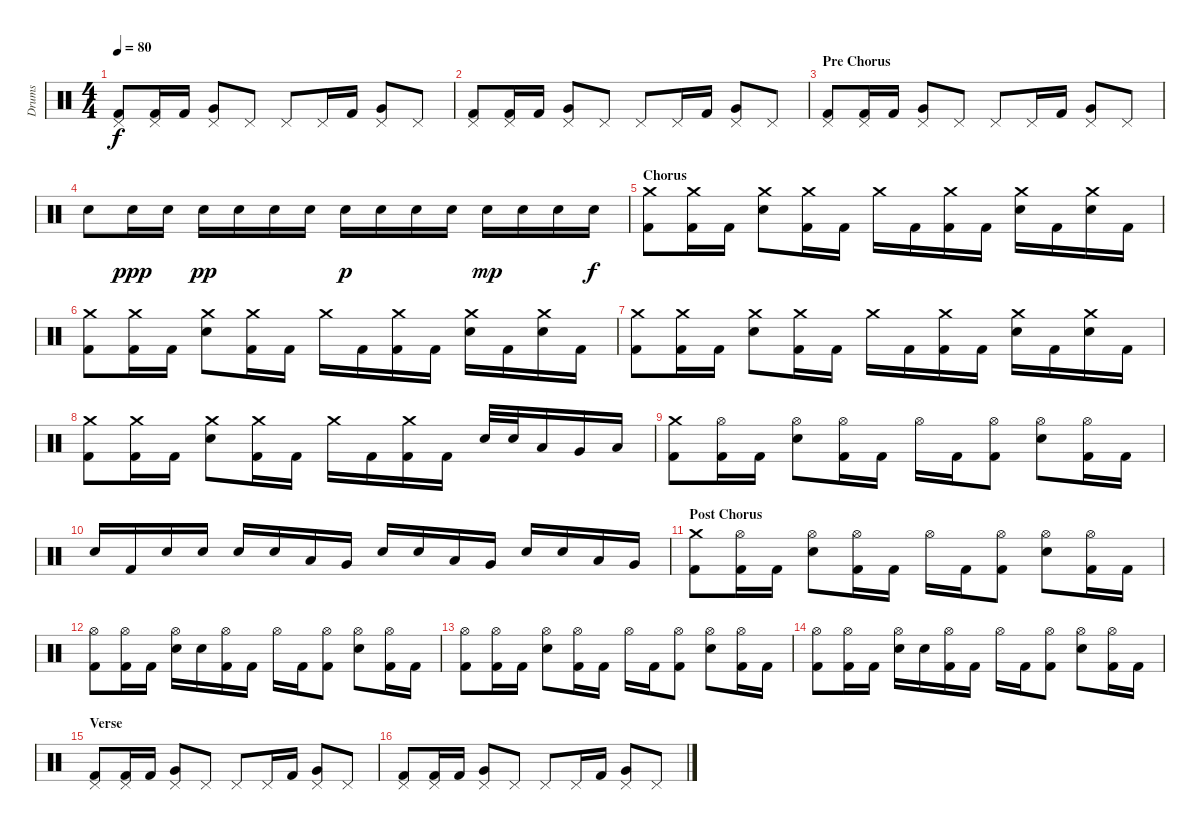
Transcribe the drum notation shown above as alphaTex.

\track ("Drums" "Drums") {instrument percussion}
\staff {score}
\articulation defaults
\ts (4 4)
\tempo 80
\clef neutral
\ks c
("Pedal Hi-Hat (hit)" "Kick (hit) 2").8{dy f} ("Pedal Hi-Hat (hit)" "Kick (hit) 2").16 "Kick (hit) 2".16 ("Pedal Hi-Hat (hit)" "Very Low Tom (hit)").8 "Pedal Hi-Hat (hit)".8 "Pedal Hi-Hat (hit)".8 "Pedal Hi-Hat (hit)".16 "Kick (hit) 2".16 ("Pedal Hi-Hat (hit)" "Very Low Tom (hit)").8 "Pedal Hi-Hat (hit)".8 |
("Pedal Hi-Hat (hit)" "Kick (hit) 2").8 ("Pedal Hi-Hat (hit)" "Kick (hit) 2").16 "Kick (hit) 2".16 ("Pedal Hi-Hat (hit)" "Very Low Tom (hit)").8 "Pedal Hi-Hat (hit)".8 "Pedal Hi-Hat (hit)".8 "Pedal Hi-Hat (hit)".16 "Kick (hit) 2".16 ("Pedal Hi-Hat (hit)" "Very Low Tom (hit)").8 "Pedal Hi-Hat (hit)".8 |
\section ("" "Pre Chorus")
("Pedal Hi-Hat (hit)" "Kick (hit) 2").8 ("Pedal Hi-Hat (hit)" "Kick (hit) 2").16 "Kick (hit) 2".16 ("Pedal Hi-Hat (hit)" "Very Low Tom (hit)").8 "Pedal Hi-Hat (hit)".8 "Pedal Hi-Hat (hit)".8 "Pedal Hi-Hat (hit)".16 "Kick (hit) 2".16 ("Pedal Hi-Hat (hit)" "Very Low Tom (hit)").8 "Pedal Hi-Hat (hit)".8 |
"Electric Snare (hit)".8 "Electric Snare (hit)".16{dy ppp} "Electric Snare (hit)".16 "Electric Snare (hit)".16{dy pp} "Electric Snare (hit)".16 "Electric Snare (hit)".16 "Electric Snare (hit)".16 "Electric Snare (hit)".16{dy p} "Electric Snare (hit)".16 "Electric Snare (hit)".16 "Electric Snare (hit)".16 "Electric Snare (hit)".16{dy mp} "Electric Snare (hit)".16 "Electric Snare (hit)".16 "Electric Snare (hit)".16{dy f} |
\section ("" "Chorus")
("Crash medium (hit)" "Kick (hit) 2").8 ("Crash medium (hit)" "Kick (hit) 2").16 "Kick (hit) 2".16 ("Crash medium (hit)" "Electric Snare (hit)").8 ("Crash medium (hit)" "Kick (hit) 2").16 "Kick (hit) 2".16 "Crash medium (hit)".16 "Kick (hit) 2".16 ("Crash medium (hit)" "Kick (hit) 2").16 "Kick (hit) 2".16 ("Crash medium (hit)" "Electric Snare (hit)").16 "Kick (hit) 2".16 ("Crash medium (hit)" "Electric Snare (hit)").16 "Kick (hit) 2".16 |
("Crash medium (hit)" "Kick (hit) 2").8 ("Crash medium (hit)" "Kick (hit) 2").16 "Kick (hit) 2".16 ("Crash medium (hit)" "Electric Snare (hit)").8 ("Crash medium (hit)" "Kick (hit) 2").16 "Kick (hit) 2".16 "Crash medium (hit)".16 "Kick (hit) 2".16 ("Crash medium (hit)" "Kick (hit) 2").16 "Kick (hit) 2".16 ("Crash medium (hit)" "Electric Snare (hit)").16 "Kick (hit) 2".16 ("Crash medium (hit)" "Electric Snare (hit)").16 "Kick (hit) 2".16 |
("Crash medium (hit)" "Kick (hit) 2").8 ("Crash medium (hit)" "Kick (hit) 2").16 "Kick (hit) 2".16 ("Crash medium (hit)" "Electric Snare (hit)").8 ("Crash medium (hit)" "Kick (hit) 2").16 "Kick (hit) 2".16 "Crash medium (hit)".16 "Kick (hit) 2".16 ("Crash medium (hit)" "Kick (hit) 2").16 "Kick (hit) 2".16 ("Crash medium (hit)" "Electric Snare (hit)").16 "Kick (hit) 2".16 ("Crash medium (hit)" "Electric Snare (hit)").16 "Kick (hit) 2".16 |
("Crash medium (hit)" "Kick (hit) 2").8 ("Crash medium (hit)" "Kick (hit) 2").16 "Kick (hit) 2".16 ("Crash medium (hit)" "Electric Snare (hit)").8 ("Crash medium (hit)" "Kick (hit) 2").16 "Kick (hit) 2".16 "Crash medium (hit)".16 "Kick (hit) 2".16 ("Crash medium (hit)" "Kick (hit) 2").16 "Kick (hit) 2".16 "Electric Snare (hit)".32 "Electric Snare (hit)".32 "Low Tom (hit)".16 "Very Low Tom (hit)".16 "Low Floor Tom (hit)".16 |
("Crash medium (hit)" "Kick (hit) 2").8 ("Hi-Hat (open)" "Kick (hit) 2").16 "Kick (hit) 2".16 ("Hi-Hat (open)" "Electric Snare (hit)").8 ("Hi-Hat (open)" "Kick (hit) 2").16 "Kick (hit) 2".16 "Hi-Hat (open)".16 "Kick (hit) 2".16 ("Hi-Hat (open)" "Kick (hit) 2").8 ("Hi-Hat (open)" "Electric Snare (hit)").8 ("Hi-Hat (open)" "Kick (hit) 2").16 "Kick (hit) 2".16 |
"Electric Snare (hit)".16 "Kick (hit) 2".16 "Electric Snare (hit)".16 "Electric Snare (hit)".16 "Electric Snare (hit)".16 "Electric Snare (hit)".16 "Low Tom (hit)".16 "Very Low Tom (hit)".16 "Electric Snare (hit)".16 "Electric Snare (hit)".16 "Low Tom (hit)".16 "Very Low Tom (hit)".16 "Electric Snare (hit)".16 "Electric Snare (hit)".16 "Low Tom (hit)".16 "Very Low Tom (hit)".16 |
\section ("" "Post Chorus")
("Crash medium (hit)" "Kick (hit) 2").8 ("Hi-Hat (open)" "Kick (hit) 2").16 "Kick (hit) 2".16 ("Hi-Hat (open)" "Electric Snare (hit)").8 ("Hi-Hat (open)" "Kick (hit) 2").16 "Kick (hit) 2".16 "Hi-Hat (open)".16 "Kick (hit) 2".16 ("Hi-Hat (open)" "Kick (hit) 2").8 ("Hi-Hat (open)" "Electric Snare (hit)").8 ("Hi-Hat (open)" "Kick (hit) 2").16 "Kick (hit) 2".16 |
("Hi-Hat (open)" "Kick (hit) 2").8 ("Hi-Hat (open)" "Kick (hit) 2").16 "Kick (hit) 2".16 ("Hi-Hat (open)" "Electric Snare (hit)").16 "Electric Snare (hit)".16 ("Hi-Hat (open)" "Kick (hit) 2").16 "Kick (hit) 2".16 "Hi-Hat (open)".16 "Kick (hit) 2".16 ("Hi-Hat (open)" "Kick (hit) 2").8 ("Hi-Hat (open)" "Electric Snare (hit)").8 ("Hi-Hat (open)" "Kick (hit) 2").16 "Kick (hit) 2".16 |
("Hi-Hat (open)" "Kick (hit) 2").8 ("Hi-Hat (open)" "Kick (hit) 2").16 "Kick (hit) 2".16 ("Hi-Hat (open)" "Electric Snare (hit)").8 ("Hi-Hat (open)" "Kick (hit) 2").16 "Kick (hit) 2".16 "Hi-Hat (open)".16 "Kick (hit) 2".16 ("Hi-Hat (open)" "Kick (hit) 2").8 ("Hi-Hat (open)" "Electric Snare (hit)").8 ("Hi-Hat (open)" "Kick (hit) 2").16 "Kick (hit) 2".16 |
("Hi-Hat (open)" "Kick (hit) 2").8 ("Hi-Hat (open)" "Kick (hit) 2").16 "Kick (hit) 2".16 ("Hi-Hat (open)" "Electric Snare (hit)").16 "Electric Snare (hit)".16 ("Hi-Hat (open)" "Kick (hit) 2").16 "Kick (hit) 2".16 "Hi-Hat (open)".16 "Kick (hit) 2".16 ("Hi-Hat (open)" "Kick (hit) 2").8 ("Hi-Hat (open)" "Electric Snare (hit)").8 ("Hi-Hat (open)" "Kick (hit) 2").16 "Kick (hit) 2".16 |
\section ("" "Verse")
("Pedal Hi-Hat (hit)" "Kick (hit) 2").8 ("Pedal Hi-Hat (hit)" "Kick (hit) 2").16 "Kick (hit) 2".16 ("Pedal Hi-Hat (hit)" "Very Low Tom (hit)").8 "Pedal Hi-Hat (hit)".8 "Pedal Hi-Hat (hit)".8 "Pedal Hi-Hat (hit)".16 "Kick (hit) 2".16 ("Pedal Hi-Hat (hit)" "Very Low Tom (hit)").8 "Pedal Hi-Hat (hit)".8 |
("Pedal Hi-Hat (hit)" "Kick (hit) 2").8 ("Pedal Hi-Hat (hit)" "Kick (hit) 2").16 "Kick (hit) 2".16 ("Pedal Hi-Hat (hit)" "Very Low Tom (hit)").8 "Pedal Hi-Hat (hit)".8 "Pedal Hi-Hat (hit)".8 "Pedal Hi-Hat (hit)".16 "Kick (hit) 2".16 ("Pedal Hi-Hat (hit)" "Very Low Tom (hit)").8 "Pedal Hi-Hat (hit)".8
